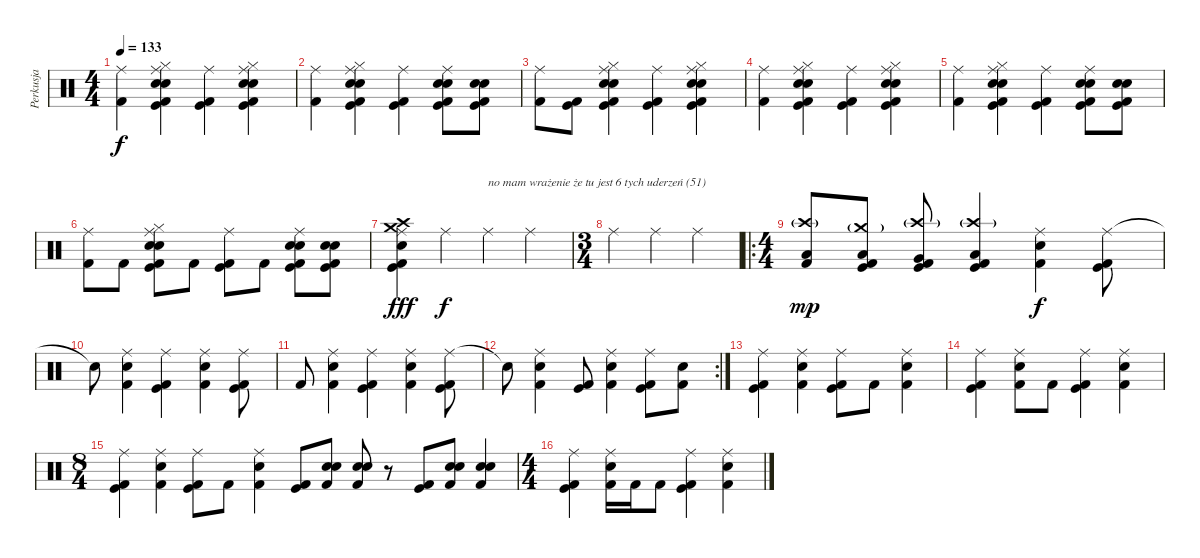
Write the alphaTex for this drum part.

\track ("Perkusja" "Perkusja") {instrument percussion}
\staff {score}
\articulation defaults
\ts (4 4)
\tempo 133
\clef neutral
\ks c
("Ride (middle)" "Kick (hit) 2").4{dy f} ("Ride (middle)" "Hi-Hat (closed)" "Electric Snare (hit)" "Kick (hit)" "Snare (hit) 2" "Kick (hit) 2").4 ("Ride (middle)" "Kick (hit) 2" "Kick (hit)").4 ("Ride (middle)" "Hi-Hat (closed)" "Electric Snare (hit)" "Kick (hit)" "Snare (hit) 2" "Kick (hit) 2").4 |
("Ride (middle)" "Kick (hit) 2").4 ("Ride (middle)" "Hi-Hat (closed)" "Electric Snare (hit)" "Kick (hit)" "Snare (hit) 2" "Kick (hit) 2").4 ("Ride (middle)" "Kick (hit) 2" "Kick (hit)").4 ("Ride (middle)" "Electric Snare (hit)" "Kick (hit)" "Snare (hit) 2" "Kick (hit) 2").8 ("Electric Snare (hit)" "Kick (hit)" "Snare (hit) 2" "Kick (hit) 2").8 |
("Ride (middle)" "Kick (hit) 2").8 ("Kick (hit)" "Kick (hit) 2").8 ("Ride (middle)" "Hi-Hat (closed)" "Electric Snare (hit)" "Kick (hit)" "Snare (hit) 2" "Kick (hit) 2").4 ("Ride (middle)" "Kick (hit) 2" "Kick (hit)").4 ("Ride (middle)" "Hi-Hat (closed)" "Electric Snare (hit)" "Kick (hit)" "Snare (hit) 2" "Kick (hit) 2").4 |
("Ride (middle)" "Kick (hit) 2").4 ("Ride (middle)" "Hi-Hat (closed)" "Electric Snare (hit)" "Kick (hit)" "Snare (hit) 2" "Kick (hit) 2").4 ("Ride (middle)" "Kick (hit) 2" "Kick (hit)").4 ("Ride (middle)" "Hi-Hat (closed)" "Electric Snare (hit)" "Kick (hit)" "Snare (hit) 2" "Kick (hit) 2").4 |
("Ride (middle)" "Kick (hit) 2").4 ("Ride (middle)" "Hi-Hat (closed)" "Electric Snare (hit)" "Kick (hit)" "Snare (hit) 2" "Kick (hit) 2").4 ("Ride (middle)" "Kick (hit) 2" "Kick (hit)").4 ("Ride (middle)" "Electric Snare (hit)" "Kick (hit)" "Snare (hit) 2" "Kick (hit) 2").8 ("Electric Snare (hit)" "Kick (hit)" "Snare (hit) 2" "Kick (hit) 2").8 |
("Ride (middle)" "Kick (hit) 2").8 "Kick (hit) 2".8 ("Ride (middle)" "Hi-Hat (closed)" "Electric Snare (hit)" "Kick (hit)" "Snare (hit) 2" "Kick (hit) 2").8 "Kick (hit) 2".8 ("Ride (middle)" "Kick (hit)" "Kick (hit) 2").8 "Kick (hit) 2".8 ("Ride (middle)" "Electric Snare (hit)" "Kick (hit)" "Snare (hit) 2" "Kick (hit) 2").8 ("Electric Snare (hit)" "Kick (hit)" "Snare (hit) 2" "Kick (hit) 2").8 |
("Electric Snare (hit)" "Crash medium (hit)" "Crash high (hit)" "Kick (hit) 2" "Kick (hit)" "Ride (middle)").4{dy fff} "Ride (middle)".4{dy f} "Ride (middle)".4{txt "no mam wrażenie że tu jest 6 tych uderzeń (51)"} "Ride (middle)".4 |
\ts (3 4)
"Ride (middle)".4 "Ride (middle)".4 "Ride (middle)".4 |
\ro
\ts (4 4)
("Crash high (hit)"{g} "Low Floor Tom (hit)" "Kick (hit) 2").8{dy mp} ("Crash medium (hit)"{g} "Low Tom (hit)" "Kick (hit)" "Kick (hit) 2").8 ("Crash high (hit)"{g} "Very Low Tom (hit)" "Kick (hit)" "Kick (hit) 2").8 ("Crash high (hit)"{g} "Low Floor Tom (hit)" "Kick (hit)" "Kick (hit) 2").4 ("Ride (middle)" "Electric Snare (hit)" "Kick (hit) 2").4{dy f} ("Ride (middle)" "Kick (hit)" "Kick (hit) 2").8 |
"Electric Snare (hit)"{t}.8 ("Ride (middle)" "Electric Snare (hit)" "Kick (hit) 2").4 ("Ride (middle)" "Kick (hit)" "Kick (hit) 2").4 ("Ride (middle)" "Electric Snare (hit)" "Kick (hit) 2").4 ("Ride (middle)" "Kick (hit)" "Kick (hit) 2").8 |
"Kick (hit) 2".8 ("Ride (middle)" "Electric Snare (hit)" "Kick (hit) 2").4 ("Ride (middle)" "Kick (hit)" "Kick (hit) 2").4 ("Ride (middle)" "Electric Snare (hit)" "Kick (hit) 2").4 ("Ride (middle)" "Kick (hit)" "Kick (hit) 2").8 |
\rc 2 "Snare (hit)"{t}.8
("Ride (middle)" "Electric Snare (hit)" "Kick (hit) 2").4 ("Kick (hit)" "Kick (hit) 2").8 ("Ride (middle)" "Electric Snare (hit)" "Kick (hit) 2").4 ("Ride (middle)" "Kick (hit)" "Kick (hit) 2").8 ("Electric Snare (hit)" "Kick (hit) 2").8 |
("Ride (middle)" "Kick (hit)" "Kick (hit) 2").4 ("Ride (middle)" "Electric Snare (hit)" "Kick (hit) 2").4 ("Ride (middle)" "Kick (hit)" "Kick (hit) 2").8 "Kick (hit) 2".8 ("Ride (middle)" "Electric Snare (hit)" "Kick (hit) 2").4 |
("Ride (middle)" "Kick (hit)" "Kick (hit) 2").4 ("Ride (middle)" "Electric Snare (hit)" "Kick (hit) 2").8 "Kick (hit) 2".8 ("Ride (middle)" "Kick (hit)" "Kick (hit) 2").4 ("Ride (middle)" "Electric Snare (hit)" "Kick (hit) 2").4 |
\ts (8 4)
("Ride (middle)" "Kick (hit)" "Kick (hit) 2").4 ("Ride (middle)" "Electric Snare (hit)" "Kick (hit) 2").4 ("Ride (middle)" "Kick (hit)" "Kick (hit) 2").8 "Kick (hit) 2".8 ("Ride (middle)" "Electric Snare (hit)" "Kick (hit) 2").4 ("Kick (hit)" "Kick (hit) 2").8 ("Electric Snare (hit)" "Electric Snare (hit)" "Kick (hit) 2").8 ("Electric Snare (hit)" "Electric Snare (hit)" "Kick (hit) 2").8 r.8 ("Kick (hit)" "Kick (hit) 2").8 ("Electric Snare (hit)" "Electric Snare (hit)" "Kick (hit) 2").8 ("Electric Snare (hit)" "Electric Snare (hit)" "Kick (hit) 2").4 |
\ts (4 4)
("Ride (middle)" "Kick (hit)" "Kick (hit) 2").4 ("Ride (middle)" "Electric Snare (hit)" "Kick (hit) 2").16 "Kick (hit) 2".16 "Kick (hit) 2".8 ("Ride (middle)" "Kick (hit)" "Kick (hit) 2").4 ("Ride (middle)" "Electric Snare (hit)" "Kick (hit) 2").4
